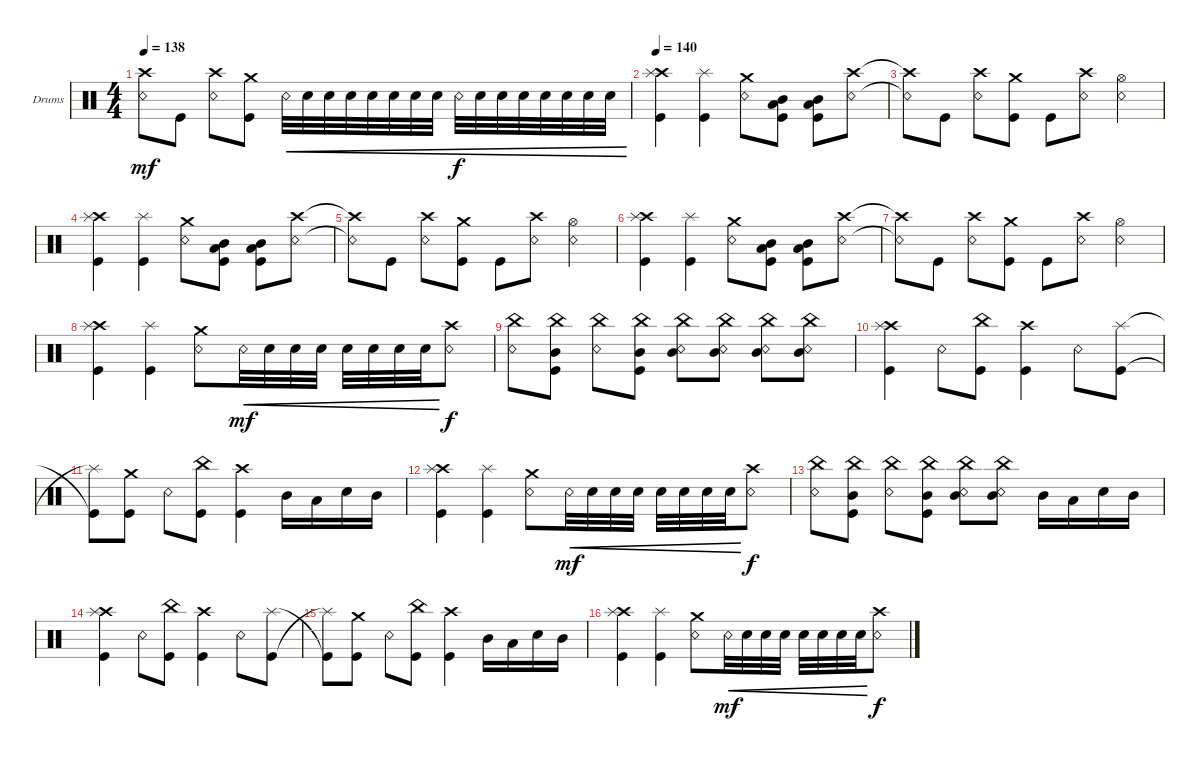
\defaultSystemsLayout 4
\bracketExtendMode groupsimilarinstruments
\firstSystemTrackNameOrientation horizontal
\otherSystemsTrackNameOrientation horizontal
\track ("Drumkit" "Drums") {instrument percussion}
\staff {score}
\articulation defaults
\ts (4 4)
\tempo 138
\clef neutral
\ks c
("Crash high (hit)"{t} "Snare (rim shot)"{t}).8{dy mf} "Kick (hit)".8 ("Crash high (hit)" "Snare (rim shot)").8 ("Kick (hit)" "Crash medium (hit)").8 "Snare (rim shot)".32{cre} "Snare (hit) 2".32{cre} "Snare (hit) 2".32{cre} "Snare (hit) 2".32{cre} "Snare (hit) 2".32{cre} "Snare (hit) 2".32{cre} "Snare (hit) 2".32{cre} "Snare (hit) 2".32{cre} "Snare (rim shot)".32{cre dy f} "Snare (hit) 2".32{cre} "Snare (hit) 2".32{cre} "Snare (hit) 2".32{cre} "Snare (hit) 2".32{cre} "Snare (hit) 2".32{cre} "Snare (hit) 2".32{cre} "Snare (hit) 2".32{cre} |
\tempo 140
("Kick (hit)" "Crash high (hit)" "Splash (hit)").4 ("Kick (hit)" "Splash (hit)").4 ("Snare (rim shot)" "Crash medium (hit)").8 ("Kick (hit)" "Mid Tom (hit)" "Low Tom (hit)").8 ("Kick (hit)" "Low Tom (hit)" "Mid Tom (hit)").8 ("Crash high (hit)" "Snare (rim shot)").8 |
("Crash high (hit)"{t} "Snare (rim shot)"{t}).8 "Kick (hit)".8 ("Crash high (hit)" "Snare (rim shot)").8 ("Kick (hit)" "Crash medium (hit)").8 "Kick (hit)".8 ("Crash high (hit)" "Snare (rim shot)").8 ("Snare (rim shot)" "Hi-Hat (open)").4 |
("Kick (hit)" "Crash high (hit)" "Splash (hit)").4 ("Kick (hit)" "Splash (hit)").4 ("Snare (rim shot)" "Crash medium (hit)").8 ("Kick (hit)" "Mid Tom (hit)" "Low Tom (hit)").8 ("Kick (hit)" "Low Tom (hit)" "Mid Tom (hit)").8 ("Crash high (hit)" "Snare (rim shot)").8 |
("Crash high (hit)"{t} "Snare (rim shot)"{t}).8 "Kick (hit)".8 ("Crash high (hit)" "Snare (rim shot)").8 ("Kick (hit)" "Crash medium (hit)").8 "Kick (hit)".8 ("Crash high (hit)" "Snare (rim shot)").8 ("Snare (rim shot)" "Hi-Hat (open)").4 |
("Kick (hit)" "Crash high (hit)" "Splash (hit)").4 ("Kick (hit)" "Splash (hit)").4 ("Snare (rim shot)" "Crash medium (hit)").8 ("Kick (hit)" "Mid Tom (hit)" "Low Tom (hit)").8 ("Kick (hit)" "Low Tom (hit)" "Mid Tom (hit)").8 ("Crash high (hit)" "Snare (rim shot)").8 |
("Crash high (hit)"{t} "Snare (rim shot)"{t}).8 "Kick (hit)".8 ("Crash high (hit)" "Snare (rim shot)").8 ("Kick (hit)" "Crash medium (hit)").8 "Kick (hit)".8 ("Crash high (hit)" "Snare (rim shot)").8 ("Snare (rim shot)" "Hi-Hat (open)").4 |
("Kick (hit)" "Crash high (hit)" "Splash (hit)").4 ("Kick (hit)" "Splash (hit)").4 ("Snare (rim shot)" "Crash medium (hit)").8 "Snare (rim shot)".32{cre dy mf} "Snare (hit) 2".32{cre} "Snare (hit) 2".32{cre} "Snare (hit) 2".32{cre} "Snare (hit) 2".32{cre} "Snare (hit) 2".32{cre} "Snare (hit) 2".32{cre} "Snare (hit) 2".32{cre} ("Crash high (hit)" "Snare (rim shot)").8{dy f} |
("Snare (rim shot)" "China (hit)").8 ("Kick (hit)" "Mid Tom (hit)" "China (hit)").8 ("Snare (rim shot)" "China (hit)").8 ("Kick (hit)" "Mid Tom (hit)" "China (hit)").8 ("Snare (rim shot)" "China (hit)" "Mid Tom (hit)").8 ("Mid Tom (hit)" "China (hit)" "Snare (rim shot)").8 ("Snare (rim shot)" "China (hit)" "Mid Tom (hit)").8 ("Mid Tom (hit)" "China (hit)" "Snare (rim shot)").8 |
("Kick (hit)" "Crash high (hit)" "Splash (hit)").4 "Snare (rim shot)".8 ("Kick (hit)" "China (hit)").8 ("Kick (hit)" "Crash high (hit)").4 "Snare (rim shot)".8 ("Kick (hit)" "Splash (hit)").8 |
("Splash (hit)"{t} "Kick (hit)"{t}).8 ("Kick (hit)" "Crash medium (hit)").8 "Snare (rim shot)".8 ("Kick (hit)" "China (hit)").8 ("Kick (hit)" "Crash high (hit)").4 "Mid Tom (hit)".16 "Low Tom (hit)".16 "Snare (hit) 2".16 "Mid Tom (hit)".16 |
("Kick (hit)" "Crash high (hit)" "Splash (hit)").4 ("Kick (hit)" "Splash (hit)").4 ("Snare (rim shot)" "Crash medium (hit)").8 "Snare (rim shot)".32{cre dy mf} "Snare (hit) 2".32{cre} "Snare (hit) 2".32{cre} "Snare (hit) 2".32{cre} "Snare (hit) 2".32{cre} "Snare (hit) 2".32{cre} "Snare (hit) 2".32{cre} "Snare (hit) 2".32{cre} ("Crash high (hit)" "Snare (rim shot)").8{dy f} |
("Snare (rim shot)" "China (hit)").8 ("Kick (hit)" "Mid Tom (hit)" "China (hit)").8 ("Snare (rim shot)" "China (hit)").8 ("Kick (hit)" "Mid Tom (hit)" "China (hit)").8 ("Snare (rim shot)" "China (hit)" "Mid Tom (hit)").8 ("Mid Tom (hit)" "China (hit)" "Snare (rim shot)").8 "Mid Tom (hit)".16 "Low Tom (hit)".16 "Snare (hit) 2".16 "Mid Tom (hit)".16 |
("Kick (hit)" "Crash high (hit)" "Splash (hit)").4 "Snare (rim shot)".8 ("Kick (hit)" "China (hit)").8 ("Kick (hit)" "Crash high (hit)").4 "Snare (rim shot)".8 ("Kick (hit)" "Splash (hit)").8 |
("Splash (hit)"{t} "Kick (hit)"{t}).8 ("Kick (hit)" "Crash medium (hit)").8 "Snare (rim shot)".8 ("Kick (hit)" "China (hit)").8 ("Kick (hit)" "Crash high (hit)").4 "Mid Tom (hit)".16 "Low Tom (hit)".16 "Snare (hit) 2".16 "Mid Tom (hit)".16 |
("Kick (hit)" "Crash high (hit)" "Splash (hit)").4 ("Kick (hit)" "Splash (hit)").4 ("Snare (rim shot)" "Crash medium (hit)").8 "Snare (rim shot)".32{cre dy mf} "Snare (hit) 2".32{cre} "Snare (hit) 2".32{cre} "Snare (hit) 2".32{cre} "Snare (hit) 2".32{cre} "Snare (hit) 2".32{cre} "Snare (hit) 2".32{cre} "Snare (hit) 2".32{cre} ("Crash high (hit)" "Snare (rim shot)").8{dy f}
